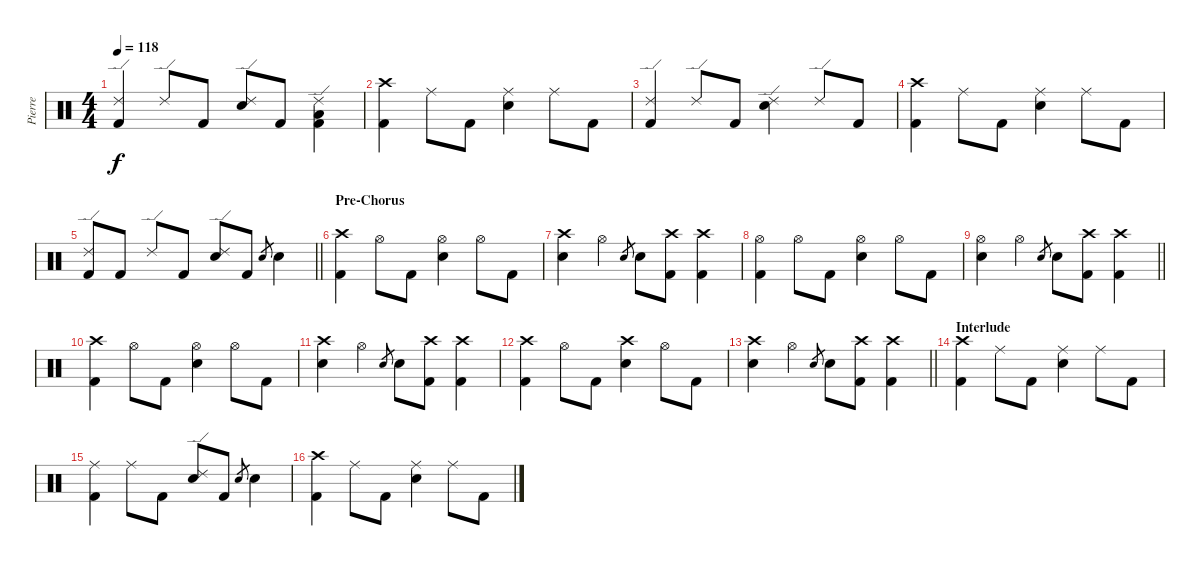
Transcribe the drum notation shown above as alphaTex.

\track ("Pierre" "Pierre") {instrument percussion}
\staff {score}
\articulation defaults
\ts (4 4)
\tempo 118
\clef neutral
\ks c
("Ride (edge) 2" "Kick (hit) 2").4{dy f} "Ride (edge) 2".8 "Kick (hit) 2".8 ("Ride (edge) 2" "Snare (hit) 2").8 "Kick (hit) 2".8 ("Ride (edge) 2" "Low Tom (hit)" "Kick (hit) 2").4 |
("Crash high (hit)" "Kick (hit) 2").4 "Ride (middle)".8 "Kick (hit) 2".8 ("Ride (middle)" "Snare (hit) 2").4 "Ride (middle)".8 "Kick (hit) 2".8 |
("Ride (edge) 2" "Kick (hit) 2").4 "Ride (edge) 2".8 "Kick (hit) 2".8 ("Ride (edge) 2" "Snare (hit) 2").4 "Ride (edge) 2".8 "Kick (hit) 2".8 |
("Crash high (hit)" "Kick (hit) 2").4 "Ride (middle)".8 "Kick (hit) 2".8 ("Ride (middle)" "Snare (hit) 2").4 "Ride (middle)".8 "Kick (hit) 2".8 |
\barLineRight lightlight
("Ride (edge) 2" "Kick (hit) 2").8 "Kick (hit) 2".8 "Ride (edge) 2".8 "Kick (hit) 2".8 ("Ride (edge) 2" "Electric Snare (hit)").8 "Kick (hit) 2".8 "Snare (hit) 2".8{gr} "Snare (hit) 2".4 |
\section ("" "Pre-Chorus")
("Crash high (hit)" "Kick (hit) 2").4 "Hi-Hat (open)".8 "Kick (hit) 2".8 ("Hi-Hat (open)" "Snare (hit) 2").4 "Hi-Hat (open)".8 "Kick (hit) 2".8 |
("Crash high (hit)" "Snare (hit) 2").4 "Hi-Hat (open)".4 "Snare (hit) 2".8{gr} "Snare (hit) 2".8 ("Crash high (hit)" "Kick (hit) 2").8 ("Crash high (hit)" "Kick (hit) 2").4 |
("Hi-Hat (open)" "Kick (hit) 2").4 "Hi-Hat (open)".8 "Kick (hit) 2".8 ("Hi-Hat (open)" "Snare (hit) 2").4 "Hi-Hat (open)".8 "Kick (hit) 2".8 |
\barLineRight lightlight
("Hi-Hat (open)" "Snare (hit) 2").4 "Hi-Hat (open)".4 "Snare (hit) 2".8{gr} "Snare (hit) 2".8 ("Crash high (hit)" "Kick (hit) 2").8 ("Crash high (hit)" "Kick (hit) 2").4 |
("Crash high (hit)" "Kick (hit) 2").4 "Hi-Hat (open)".8 "Kick (hit) 2".8 ("Hi-Hat (open)" "Snare (hit) 2").4 "Hi-Hat (open)".8 "Kick (hit) 2".8 |
("Crash high (hit)" "Snare (hit) 2").4 "Hi-Hat (open)".4 "Snare (hit) 2".8{gr} "Snare (hit) 2".8 ("Crash high (hit)" "Kick (hit) 2").8 ("Crash high (hit)" "Kick (hit) 2").4 |
("Crash high (hit)" "Kick (hit) 2").4 "Hi-Hat (open)".8 "Kick (hit) 2".8 ("Crash high (hit)" "Snare (hit) 2").4 "Hi-Hat (open)".8 "Kick (hit) 2".8 |
\barLineRight lightlight
("Crash high (hit)" "Snare (hit) 2").4 "Hi-Hat (open)".4 "Snare (hit) 2".8{gr} "Snare (hit) 2".8 ("Crash high (hit)" "Kick (hit) 2").8 ("Crash high (hit)" "Kick (hit) 2").4 |
\section ("" "Interlude")
("Crash high (hit)" "Kick (hit) 2").4 "Ride (middle)".8 "Kick (hit) 2".8 ("Ride (middle)" "Snare (hit) 2").4 "Ride (middle)".8 "Kick (hit) 2".8 |
("Ride (middle)" "Kick (hit) 2").4 "Ride (middle)".8 "Kick (hit) 2".8 ("Ride (edge) 2" "Electric Snare (hit)").8 "Kick (hit) 2".8 "Snare (hit) 2".8{gr} "Snare (hit) 2".4 |
("Crash high (hit)" "Kick (hit) 2").4 "Ride (middle)".8 "Kick (hit) 2".8 ("Ride (middle)" "Snare (hit) 2").4 "Ride (middle)".8 "Kick (hit) 2".8
